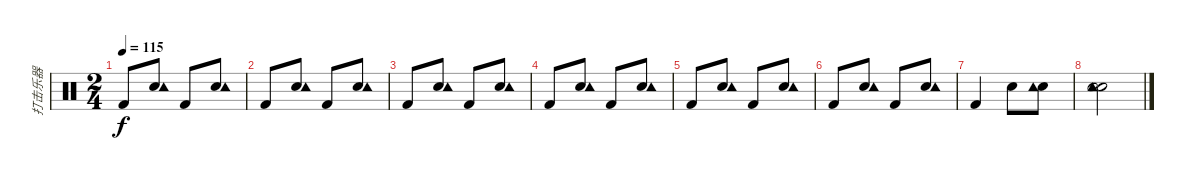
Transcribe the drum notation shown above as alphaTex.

\track ("打击乐器" "打击乐器") {instrument percussion}
\staff {score}
\articulation defaults
\ts (2 4)
\tempo 115
\clef neutral
\ks c "Kick (hit) 2".8{dy f}
("Snare (hit) 2" "Tambourine (hit)").8 "Kick (hit) 2".8 ("Snare (hit) 2" "Tambourine (hit)").8 |
"Kick (hit) 2".8 ("Snare (hit) 2" "Tambourine (hit)").8 "Kick (hit) 2".8 ("Snare (hit) 2" "Tambourine (hit)").8 |
"Kick (hit) 2".8 ("Snare (hit) 2" "Tambourine (hit)").8 "Kick (hit) 2".8 ("Snare (hit) 2" "Tambourine (hit)").8 |
"Kick (hit) 2".8 ("Snare (hit) 2" "Tambourine (hit)").8 "Kick (hit) 2".8 ("Snare (hit) 2" "Tambourine (hit)").8 |
"Kick (hit) 2".8 ("Snare (hit) 2" "Tambourine (hit)").8 "Kick (hit) 2".8 ("Snare (hit) 2" "Tambourine (hit)").8 |
"Kick (hit) 2".8 ("Snare (hit) 2" "Tambourine (hit)").8 "Kick (hit) 2".8 ("Snare (hit) 2" "Tambourine (hit)").8 |
"Kick (hit) 2".4 "Snare (hit) 2".8 ("Snare (hit) 2" "Tambourine (hit)").8 |
("Snare (hit) 2" "Tambourine (hit)" "Snare (hit)").2
